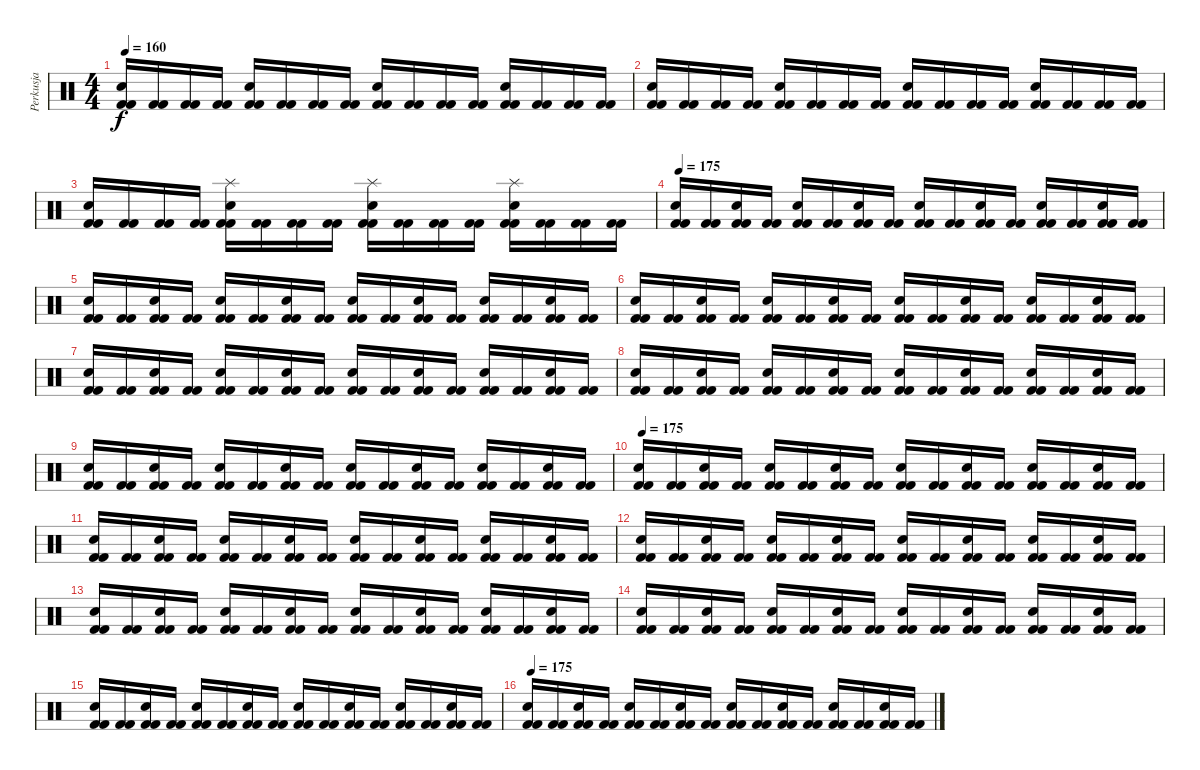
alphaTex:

\track ("Perkusja" "Perkusja") {instrument percussion}
\staff {score}
\articulation defaults
\ts (4 4)
\tempo 160
\clef neutral
\ks c
("Snare (hit) 2" "Kick (hit) 2" "Kick (hit) 2").16{dy f} ("Kick (hit) 2" "Kick (hit) 2").16 ("Kick (hit) 2" "Kick (hit) 2").16 ("Kick (hit) 2" "Kick (hit) 2").16 ("Electric Snare (hit)" "Kick (hit) 2" "Kick (hit) 2").16 ("Kick (hit) 2" "Kick (hit) 2").16 ("Kick (hit) 2" "Kick (hit) 2").16 ("Kick (hit) 2" "Kick (hit) 2").16 ("Snare (hit) 2" "Kick (hit) 2" "Kick (hit) 2").16 ("Kick (hit) 2" "Kick (hit) 2").16 ("Kick (hit) 2" "Kick (hit) 2").16 ("Kick (hit) 2" "Kick (hit) 2").16 ("Electric Snare (hit)" "Kick (hit) 2" "Kick (hit) 2").16 ("Kick (hit) 2" "Kick (hit) 2").16 ("Kick (hit) 2" "Kick (hit) 2").16 ("Kick (hit) 2" "Kick (hit) 2").16 |
("Snare (hit) 2" "Kick (hit) 2" "Kick (hit) 2").16 ("Kick (hit) 2" "Kick (hit) 2").16 ("Kick (hit) 2" "Kick (hit) 2").16 ("Kick (hit) 2" "Kick (hit) 2").16 ("Electric Snare (hit)" "Kick (hit) 2" "Kick (hit) 2").16 ("Kick (hit) 2" "Kick (hit) 2").16 ("Kick (hit) 2" "Kick (hit) 2").16 ("Kick (hit) 2" "Kick (hit) 2").16 ("Snare (hit) 2" "Kick (hit) 2" "Kick (hit) 2").16 ("Kick (hit) 2" "Kick (hit) 2").16 ("Kick (hit) 2" "Kick (hit) 2").16 ("Kick (hit) 2" "Kick (hit) 2").16 ("Electric Snare (hit)" "Kick (hit) 2" "Kick (hit) 2").16 ("Kick (hit) 2" "Kick (hit) 2").16 ("Kick (hit) 2" "Kick (hit) 2").16 ("Kick (hit) 2" "Kick (hit) 2").16 |
("Snare (hit) 2" "Kick (hit) 2" "Kick (hit) 2").16 ("Kick (hit) 2" "Kick (hit) 2").16 ("Kick (hit) 2" "Kick (hit) 2").16 ("Kick (hit) 2" "Kick (hit) 2").16 ("Splash (hit)" "Electric Snare (hit)" "Kick (hit) 2" "Kick (hit) 2").16 ("Kick (hit) 2" "Kick (hit) 2").16 ("Kick (hit) 2" "Kick (hit) 2").16 ("Kick (hit) 2" "Kick (hit) 2").16 ("Splash (hit)" "Snare (hit) 2" "Kick (hit) 2" "Kick (hit) 2").16 ("Kick (hit) 2" "Kick (hit) 2").16 ("Kick (hit) 2" "Kick (hit) 2").16 ("Kick (hit) 2" "Kick (hit) 2").16 ("Splash (hit)" "Electric Snare (hit)" "Kick (hit) 2" "Kick (hit) 2").16 ("Kick (hit) 2" "Kick (hit) 2").16 ("Kick (hit) 2" "Kick (hit) 2").16 ("Kick (hit) 2" "Kick (hit) 2").16 |
\tempo 175
("Snare (hit) 2" "Kick (hit) 2" "Kick (hit) 2").16 ("Kick (hit) 2" "Kick (hit) 2").16 ("Snare (hit) 2" "Kick (hit) 2" "Kick (hit) 2").16 ("Kick (hit) 2" "Kick (hit) 2").16 ("Snare (hit) 2" "Kick (hit) 2" "Kick (hit) 2").16 ("Kick (hit) 2" "Kick (hit) 2").16 ("Snare (hit) 2" "Kick (hit) 2" "Kick (hit) 2").16 ("Kick (hit) 2" "Kick (hit) 2").16 ("Snare (hit) 2" "Kick (hit) 2" "Kick (hit) 2").16 ("Kick (hit) 2" "Kick (hit) 2").16 ("Snare (hit) 2" "Kick (hit) 2" "Kick (hit) 2").16 ("Kick (hit) 2" "Kick (hit) 2").16 ("Snare (hit) 2" "Kick (hit) 2" "Kick (hit) 2").16 ("Kick (hit) 2" "Kick (hit) 2").16 ("Snare (hit) 2" "Kick (hit) 2" "Kick (hit) 2").16 ("Kick (hit) 2" "Kick (hit) 2").16 |
("Snare (hit) 2" "Kick (hit) 2" "Kick (hit) 2").16 ("Kick (hit) 2" "Kick (hit) 2").16 ("Snare (hit) 2" "Kick (hit) 2" "Kick (hit) 2").16 ("Kick (hit) 2" "Kick (hit) 2").16 ("Snare (hit) 2" "Kick (hit) 2" "Kick (hit) 2").16 ("Kick (hit) 2" "Kick (hit) 2").16 ("Snare (hit) 2" "Kick (hit) 2" "Kick (hit) 2").16 ("Kick (hit) 2" "Kick (hit) 2").16 ("Snare (hit) 2" "Kick (hit) 2" "Kick (hit) 2").16 ("Kick (hit) 2" "Kick (hit) 2").16 ("Snare (hit) 2" "Kick (hit) 2" "Kick (hit) 2").16 ("Kick (hit) 2" "Kick (hit) 2").16 ("Snare (hit) 2" "Kick (hit) 2" "Kick (hit) 2").16 ("Kick (hit) 2" "Kick (hit) 2").16 ("Snare (hit) 2" "Kick (hit) 2" "Kick (hit) 2").16 ("Kick (hit) 2" "Kick (hit) 2").16 |
("Snare (hit) 2" "Kick (hit) 2" "Kick (hit) 2").16 ("Kick (hit) 2" "Kick (hit) 2").16 ("Snare (hit) 2" "Kick (hit) 2" "Kick (hit) 2").16 ("Kick (hit) 2" "Kick (hit) 2").16 ("Snare (hit) 2" "Kick (hit) 2" "Kick (hit) 2").16 ("Kick (hit) 2" "Kick (hit) 2").16 ("Snare (hit) 2" "Kick (hit) 2" "Kick (hit) 2").16 ("Kick (hit) 2" "Kick (hit) 2").16 ("Snare (hit) 2" "Kick (hit) 2" "Kick (hit) 2").16 ("Kick (hit) 2" "Kick (hit) 2").16 ("Snare (hit) 2" "Kick (hit) 2" "Kick (hit) 2").16 ("Kick (hit) 2" "Kick (hit) 2").16 ("Snare (hit) 2" "Kick (hit) 2" "Kick (hit) 2").16 ("Kick (hit) 2" "Kick (hit) 2").16 ("Snare (hit) 2" "Kick (hit) 2" "Kick (hit) 2").16 ("Kick (hit) 2" "Kick (hit) 2").16 |
("Snare (hit) 2" "Kick (hit) 2" "Kick (hit) 2").16 ("Kick (hit) 2" "Kick (hit) 2").16 ("Snare (hit) 2" "Kick (hit) 2" "Kick (hit) 2").16 ("Kick (hit) 2" "Kick (hit) 2").16 ("Snare (hit) 2" "Kick (hit) 2" "Kick (hit) 2").16 ("Kick (hit) 2" "Kick (hit) 2").16 ("Snare (hit) 2" "Kick (hit) 2" "Kick (hit) 2").16 ("Kick (hit) 2" "Kick (hit) 2").16 ("Snare (hit) 2" "Kick (hit) 2" "Kick (hit) 2").16 ("Kick (hit) 2" "Kick (hit) 2").16 ("Snare (hit) 2" "Kick (hit) 2" "Kick (hit) 2").16 ("Kick (hit) 2" "Kick (hit) 2").16 ("Snare (hit) 2" "Kick (hit) 2" "Kick (hit) 2").16 ("Kick (hit) 2" "Kick (hit) 2").16 ("Snare (hit) 2" "Kick (hit) 2" "Kick (hit) 2").16 ("Kick (hit) 2" "Kick (hit) 2").16 |
("Snare (hit) 2" "Kick (hit) 2" "Kick (hit) 2").16 ("Kick (hit) 2" "Kick (hit) 2").16 ("Snare (hit) 2" "Kick (hit) 2" "Kick (hit) 2").16 ("Kick (hit) 2" "Kick (hit) 2").16 ("Snare (hit) 2" "Kick (hit) 2" "Kick (hit) 2").16 ("Kick (hit) 2" "Kick (hit) 2").16 ("Snare (hit) 2" "Kick (hit) 2" "Kick (hit) 2").16 ("Kick (hit) 2" "Kick (hit) 2").16 ("Snare (hit) 2" "Kick (hit) 2" "Kick (hit) 2").16 ("Kick (hit) 2" "Kick (hit) 2").16 ("Snare (hit) 2" "Kick (hit) 2" "Kick (hit) 2").16 ("Kick (hit) 2" "Kick (hit) 2").16 ("Snare (hit) 2" "Kick (hit) 2" "Kick (hit) 2").16 ("Kick (hit) 2" "Kick (hit) 2").16 ("Snare (hit) 2" "Kick (hit) 2" "Kick (hit) 2").16 ("Kick (hit) 2" "Kick (hit) 2").16 |
("Snare (hit) 2" "Kick (hit) 2" "Kick (hit) 2").16 ("Kick (hit) 2" "Kick (hit) 2").16 ("Snare (hit) 2" "Kick (hit) 2" "Kick (hit) 2").16 ("Kick (hit) 2" "Kick (hit) 2").16 ("Snare (hit) 2" "Kick (hit) 2" "Kick (hit) 2").16 ("Kick (hit) 2" "Kick (hit) 2").16 ("Snare (hit) 2" "Kick (hit) 2" "Kick (hit) 2").16 ("Kick (hit) 2" "Kick (hit) 2").16 ("Snare (hit) 2" "Kick (hit) 2" "Kick (hit) 2").16 ("Kick (hit) 2" "Kick (hit) 2").16 ("Snare (hit) 2" "Kick (hit) 2" "Kick (hit) 2").16 ("Kick (hit) 2" "Kick (hit) 2").16 ("Snare (hit) 2" "Kick (hit) 2" "Kick (hit) 2").16 ("Kick (hit) 2" "Kick (hit) 2").16 ("Snare (hit) 2" "Kick (hit) 2" "Kick (hit) 2").16 ("Kick (hit) 2" "Kick (hit) 2").16 |
\tempo 175
("Snare (hit) 2" "Kick (hit) 2" "Kick (hit) 2").16 ("Kick (hit) 2" "Kick (hit) 2").16 ("Snare (hit) 2" "Kick (hit) 2" "Kick (hit) 2").16 ("Kick (hit) 2" "Kick (hit) 2").16 ("Snare (hit) 2" "Kick (hit) 2" "Kick (hit) 2").16 ("Kick (hit) 2" "Kick (hit) 2").16 ("Snare (hit) 2" "Kick (hit) 2" "Kick (hit) 2").16 ("Kick (hit) 2" "Kick (hit) 2").16 ("Snare (hit) 2" "Kick (hit) 2" "Kick (hit) 2").16 ("Kick (hit) 2" "Kick (hit) 2").16 ("Snare (hit) 2" "Kick (hit) 2" "Kick (hit) 2").16 ("Kick (hit) 2" "Kick (hit) 2").16 ("Snare (hit) 2" "Kick (hit) 2" "Kick (hit) 2").16 ("Kick (hit) 2" "Kick (hit) 2").16 ("Snare (hit) 2" "Kick (hit) 2" "Kick (hit) 2").16 ("Kick (hit) 2" "Kick (hit) 2").16 |
("Snare (hit) 2" "Kick (hit) 2" "Kick (hit) 2").16 ("Kick (hit) 2" "Kick (hit) 2").16 ("Snare (hit) 2" "Kick (hit) 2" "Kick (hit) 2").16 ("Kick (hit) 2" "Kick (hit) 2").16 ("Snare (hit) 2" "Kick (hit) 2" "Kick (hit) 2").16 ("Kick (hit) 2" "Kick (hit) 2").16 ("Snare (hit) 2" "Kick (hit) 2" "Kick (hit) 2").16 ("Kick (hit) 2" "Kick (hit) 2").16 ("Snare (hit) 2" "Kick (hit) 2" "Kick (hit) 2").16 ("Kick (hit) 2" "Kick (hit) 2").16 ("Snare (hit) 2" "Kick (hit) 2" "Kick (hit) 2").16 ("Kick (hit) 2" "Kick (hit) 2").16 ("Snare (hit) 2" "Kick (hit) 2" "Kick (hit) 2").16 ("Kick (hit) 2" "Kick (hit) 2").16 ("Snare (hit) 2" "Kick (hit) 2" "Kick (hit) 2").16 ("Kick (hit) 2" "Kick (hit) 2").16 |
("Snare (hit) 2" "Kick (hit) 2" "Kick (hit) 2").16 ("Kick (hit) 2" "Kick (hit) 2").16 ("Snare (hit) 2" "Kick (hit) 2" "Kick (hit) 2").16 ("Kick (hit) 2" "Kick (hit) 2").16 ("Snare (hit) 2" "Kick (hit) 2" "Kick (hit) 2").16 ("Kick (hit) 2" "Kick (hit) 2").16 ("Snare (hit) 2" "Kick (hit) 2" "Kick (hit) 2").16 ("Kick (hit) 2" "Kick (hit) 2").16 ("Snare (hit) 2" "Kick (hit) 2" "Kick (hit) 2").16 ("Kick (hit) 2" "Kick (hit) 2").16 ("Snare (hit) 2" "Kick (hit) 2" "Kick (hit) 2").16 ("Kick (hit) 2" "Kick (hit) 2").16 ("Snare (hit) 2" "Kick (hit) 2" "Kick (hit) 2").16 ("Kick (hit) 2" "Kick (hit) 2").16 ("Snare (hit) 2" "Kick (hit) 2" "Kick (hit) 2").16 ("Kick (hit) 2" "Kick (hit) 2").16 |
("Snare (hit) 2" "Kick (hit) 2" "Kick (hit) 2").16 ("Kick (hit) 2" "Kick (hit) 2").16 ("Snare (hit) 2" "Kick (hit) 2" "Kick (hit) 2").16 ("Kick (hit) 2" "Kick (hit) 2").16 ("Snare (hit) 2" "Kick (hit) 2" "Kick (hit) 2").16 ("Kick (hit) 2" "Kick (hit) 2").16 ("Snare (hit) 2" "Kick (hit) 2" "Kick (hit) 2").16 ("Kick (hit) 2" "Kick (hit) 2").16 ("Snare (hit) 2" "Kick (hit) 2" "Kick (hit) 2").16 ("Kick (hit) 2" "Kick (hit) 2").16 ("Snare (hit) 2" "Kick (hit) 2" "Kick (hit) 2").16 ("Kick (hit) 2" "Kick (hit) 2").16 ("Snare (hit) 2" "Kick (hit) 2" "Kick (hit) 2").16 ("Kick (hit) 2" "Kick (hit) 2").16 ("Snare (hit) 2" "Kick (hit) 2" "Kick (hit) 2").16 ("Kick (hit) 2" "Kick (hit) 2").16 |
("Snare (hit) 2" "Kick (hit) 2" "Kick (hit) 2").16 ("Kick (hit) 2" "Kick (hit) 2").16 ("Snare (hit) 2" "Kick (hit) 2" "Kick (hit) 2").16 ("Kick (hit) 2" "Kick (hit) 2").16 ("Snare (hit) 2" "Kick (hit) 2" "Kick (hit) 2").16 ("Kick (hit) 2" "Kick (hit) 2").16 ("Snare (hit) 2" "Kick (hit) 2" "Kick (hit) 2").16 ("Kick (hit) 2" "Kick (hit) 2").16 ("Snare (hit) 2" "Kick (hit) 2" "Kick (hit) 2").16 ("Kick (hit) 2" "Kick (hit) 2").16 ("Snare (hit) 2" "Kick (hit) 2" "Kick (hit) 2").16 ("Kick (hit) 2" "Kick (hit) 2").16 ("Snare (hit) 2" "Kick (hit) 2" "Kick (hit) 2").16 ("Kick (hit) 2" "Kick (hit) 2").16 ("Snare (hit) 2" "Kick (hit) 2" "Kick (hit) 2").16 ("Kick (hit) 2" "Kick (hit) 2").16 |
("Snare (hit) 2" "Kick (hit) 2" "Kick (hit) 2").16 ("Kick (hit) 2" "Kick (hit) 2").16 ("Snare (hit) 2" "Kick (hit) 2" "Kick (hit) 2").16 ("Kick (hit) 2" "Kick (hit) 2").16 ("Snare (hit) 2" "Kick (hit) 2" "Kick (hit) 2").16 ("Kick (hit) 2" "Kick (hit) 2").16 ("Snare (hit) 2" "Kick (hit) 2" "Kick (hit) 2").16 ("Kick (hit) 2" "Kick (hit) 2").16 ("Snare (hit) 2" "Kick (hit) 2" "Kick (hit) 2").16 ("Kick (hit) 2" "Kick (hit) 2").16 ("Snare (hit) 2" "Kick (hit) 2" "Kick (hit) 2").16 ("Kick (hit) 2" "Kick (hit) 2").16 ("Snare (hit) 2" "Kick (hit) 2" "Kick (hit) 2").16 ("Kick (hit) 2" "Kick (hit) 2").16 ("Snare (hit) 2" "Kick (hit) 2" "Kick (hit) 2").16 ("Kick (hit) 2" "Kick (hit) 2").16 |
\tempo 175
("Snare (hit) 2" "Kick (hit) 2" "Kick (hit) 2").16 ("Kick (hit) 2" "Kick (hit) 2").16 ("Snare (hit) 2" "Kick (hit) 2" "Kick (hit) 2").16 ("Kick (hit) 2" "Kick (hit) 2").16 ("Snare (hit) 2" "Kick (hit) 2" "Kick (hit) 2").16 ("Kick (hit) 2" "Kick (hit) 2").16 ("Snare (hit) 2" "Kick (hit) 2" "Kick (hit) 2").16 ("Kick (hit) 2" "Kick (hit) 2").16 ("Snare (hit) 2" "Kick (hit) 2" "Kick (hit) 2").16 ("Kick (hit) 2" "Kick (hit) 2").16 ("Snare (hit) 2" "Kick (hit) 2" "Kick (hit) 2").16 ("Kick (hit) 2" "Kick (hit) 2").16 ("Snare (hit) 2" "Kick (hit) 2" "Kick (hit) 2").16 ("Kick (hit) 2" "Kick (hit) 2").16 ("Snare (hit) 2" "Kick (hit) 2" "Kick (hit) 2").16 ("Kick (hit) 2" "Kick (hit) 2").16
